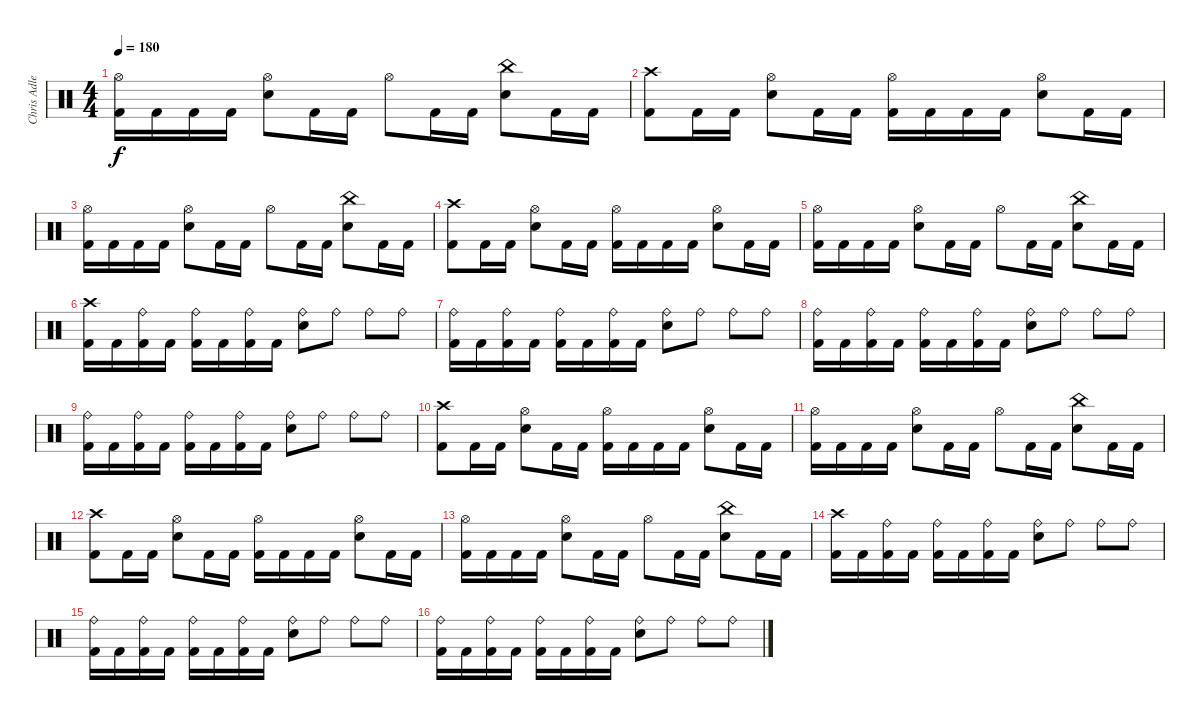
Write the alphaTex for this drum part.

\track ("Chris Adler" "Chris Adle") {instrument percussion}
\staff {score}
\articulation defaults
\ts (4 4)
\tempo 180
\clef neutral
\ks c
("Hi-Hat (open)" "Kick (hit) 2").16{dy f} "Kick (hit) 2".16 "Kick (hit) 2".16 "Kick (hit) 2".16 ("Hi-Hat (open)" "Electric Snare (hit)").8 "Kick (hit) 2".16 "Kick (hit) 2".16 "Hi-Hat (open)".8 "Kick (hit) 2".16 "Kick (hit) 2".16 ("China (hit)" "Electric Snare (hit)").8 "Kick (hit) 2".16 "Kick (hit) 2".16 |
("Crash high (hit)" "Kick (hit) 2").8 "Kick (hit) 2".16 "Kick (hit) 2".16 ("Hi-Hat (open)" "Electric Snare (hit)").8 "Kick (hit) 2".16 "Kick (hit) 2".16 ("Hi-Hat (open)" "Kick (hit) 2").16 "Kick (hit) 2".16 "Kick (hit) 2".16 "Kick (hit) 2".16 ("Hi-Hat (open)" "Electric Snare (hit)").8 "Kick (hit) 2".16 "Kick (hit) 2".16 |
("Hi-Hat (open)" "Kick (hit) 2").16 "Kick (hit) 2".16 "Kick (hit) 2".16 "Kick (hit) 2".16 ("Hi-Hat (open)" "Electric Snare (hit)").8 "Kick (hit) 2".16 "Kick (hit) 2".16 "Hi-Hat (open)".8 "Kick (hit) 2".16 "Kick (hit) 2".16 ("China (hit)" "Electric Snare (hit)").8 "Kick (hit) 2".16 "Kick (hit) 2".16 |
("Crash high (hit)" "Kick (hit) 2").8 "Kick (hit) 2".16 "Kick (hit) 2".16 ("Hi-Hat (open)" "Electric Snare (hit)").8 "Kick (hit) 2".16 "Kick (hit) 2".16 ("Hi-Hat (open)" "Kick (hit) 2").16 "Kick (hit) 2".16 "Kick (hit) 2".16 "Kick (hit) 2".16 ("Hi-Hat (open)" "Electric Snare (hit)").8 "Kick (hit) 2".16 "Kick (hit) 2".16 |
("Hi-Hat (open)" "Kick (hit) 2").16 "Kick (hit) 2".16 "Kick (hit) 2".16 "Kick (hit) 2".16 ("Hi-Hat (open)" "Electric Snare (hit)").8 "Kick (hit) 2".16 "Kick (hit) 2".16 "Hi-Hat (open)".8 "Kick (hit) 2".16 "Kick (hit) 2".16 ("China (hit)" "Electric Snare (hit)").8 "Kick (hit) 2".16 "Kick (hit) 2".16 |
("Crash high (hit)" "Kick (hit) 2").16 "Kick (hit) 2".16 ("Ride (bell)" "Kick (hit) 2").16 "Kick (hit) 2".16 ("Ride (bell)" "Kick (hit) 2").16 "Kick (hit) 2".16 ("Ride (bell)" "Kick (hit) 2").16 "Kick (hit) 2".16 ("Ride (bell)" "Electric Snare (hit)").8 "Ride (bell)".8 "Ride (bell)".8 "Ride (bell)".8 |
("Ride (bell)" "Kick (hit) 2").16 "Kick (hit) 2".16 ("Ride (bell)" "Kick (hit) 2").16 "Kick (hit) 2".16 ("Ride (bell)" "Kick (hit) 2").16 "Kick (hit) 2".16 ("Ride (bell)" "Kick (hit) 2").16 "Kick (hit) 2".16 ("Ride (bell)" "Electric Snare (hit)").8 "Ride (bell)".8 "Ride (bell)".8 "Ride (bell)".8 |
("Ride (bell)" "Kick (hit) 2").16 "Kick (hit) 2".16 ("Ride (bell)" "Kick (hit) 2").16 "Kick (hit) 2".16 ("Ride (bell)" "Kick (hit) 2").16 "Kick (hit) 2".16 ("Ride (bell)" "Kick (hit) 2").16 "Kick (hit) 2".16 ("Ride (bell)" "Electric Snare (hit)").8 "Ride (bell)".8 "Ride (bell)".8 "Ride (bell)".8 |
("Ride (bell)" "Kick (hit) 2").16 "Kick (hit) 2".16 ("Ride (bell)" "Kick (hit) 2").16 "Kick (hit) 2".16 ("Ride (bell)" "Kick (hit) 2").16 "Kick (hit) 2".16 ("Ride (bell)" "Kick (hit) 2").16 "Kick (hit) 2".16 ("Ride (bell)" "Electric Snare (hit)").8 "Ride (bell)".8 "Ride (bell)".8 "Ride (bell)".8 |
("Crash high (hit)" "Kick (hit) 2").8 "Kick (hit) 2".16 "Kick (hit) 2".16 ("Hi-Hat (open)" "Electric Snare (hit)").8 "Kick (hit) 2".16 "Kick (hit) 2".16 ("Hi-Hat (open)" "Kick (hit) 2").16 "Kick (hit) 2".16 "Kick (hit) 2".16 "Kick (hit) 2".16 ("Hi-Hat (open)" "Electric Snare (hit)").8 "Kick (hit) 2".16 "Kick (hit) 2".16 |
("Hi-Hat (open)" "Kick (hit) 2").16 "Kick (hit) 2".16 "Kick (hit) 2".16 "Kick (hit) 2".16 ("Hi-Hat (open)" "Electric Snare (hit)").8 "Kick (hit) 2".16 "Kick (hit) 2".16 "Hi-Hat (open)".8 "Kick (hit) 2".16 "Kick (hit) 2".16 ("China (hit)" "Electric Snare (hit)").8 "Kick (hit) 2".16 "Kick (hit) 2".16 |
("Crash high (hit)" "Kick (hit) 2").8 "Kick (hit) 2".16 "Kick (hit) 2".16 ("Hi-Hat (open)" "Electric Snare (hit)").8 "Kick (hit) 2".16 "Kick (hit) 2".16 ("Hi-Hat (open)" "Kick (hit) 2").16 "Kick (hit) 2".16 "Kick (hit) 2".16 "Kick (hit) 2".16 ("Hi-Hat (open)" "Electric Snare (hit)").8 "Kick (hit) 2".16 "Kick (hit) 2".16 |
("Hi-Hat (open)" "Kick (hit) 2").16 "Kick (hit) 2".16 "Kick (hit) 2".16 "Kick (hit) 2".16 ("Hi-Hat (open)" "Electric Snare (hit)").8 "Kick (hit) 2".16 "Kick (hit) 2".16 "Hi-Hat (open)".8 "Kick (hit) 2".16 "Kick (hit) 2".16 ("China (hit)" "Electric Snare (hit)").8 "Kick (hit) 2".16 "Kick (hit) 2".16 |
("Crash high (hit)" "Kick (hit) 2").16 "Kick (hit) 2".16 ("Ride (bell)" "Kick (hit) 2").16 "Kick (hit) 2".16 ("Ride (bell)" "Kick (hit) 2").16 "Kick (hit) 2".16 ("Ride (bell)" "Kick (hit) 2").16 "Kick (hit) 2".16 ("Ride (bell)" "Electric Snare (hit)").8 "Ride (bell)".8 "Ride (bell)".8 "Ride (bell)".8 |
("Ride (bell)" "Kick (hit) 2").16 "Kick (hit) 2".16 ("Ride (bell)" "Kick (hit) 2").16 "Kick (hit) 2".16 ("Ride (bell)" "Kick (hit) 2").16 "Kick (hit) 2".16 ("Ride (bell)" "Kick (hit) 2").16 "Kick (hit) 2".16 ("Ride (bell)" "Electric Snare (hit)").8 "Ride (bell)".8 "Ride (bell)".8 "Ride (bell)".8 |
("Ride (bell)" "Kick (hit) 2").16 "Kick (hit) 2".16 ("Ride (bell)" "Kick (hit) 2").16 "Kick (hit) 2".16 ("Ride (bell)" "Kick (hit) 2").16 "Kick (hit) 2".16 ("Ride (bell)" "Kick (hit) 2").16 "Kick (hit) 2".16 ("Ride (bell)" "Electric Snare (hit)").8 "Ride (bell)".8 "Ride (bell)".8 "Ride (bell)".8
